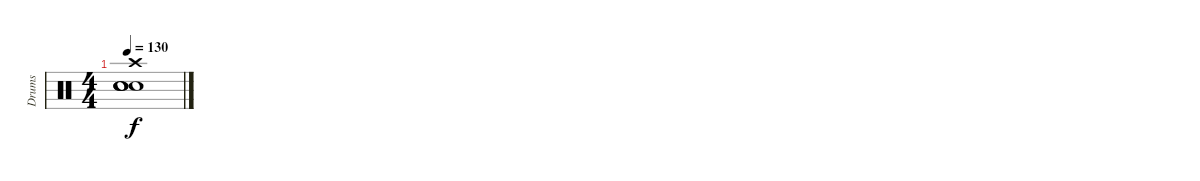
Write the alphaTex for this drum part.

\track ("Drums" "Drums") {instrument percussion}
\staff {score}
\articulation defaults
\ts (4 4)
\tempo 130
\clef neutral
\ks c
("Crash high (hit)" "Electric Snare (hit)" "Electric Snare (hit)" "Electric Snare (hit)" "Electric Snare (hit)").1{dy f}
